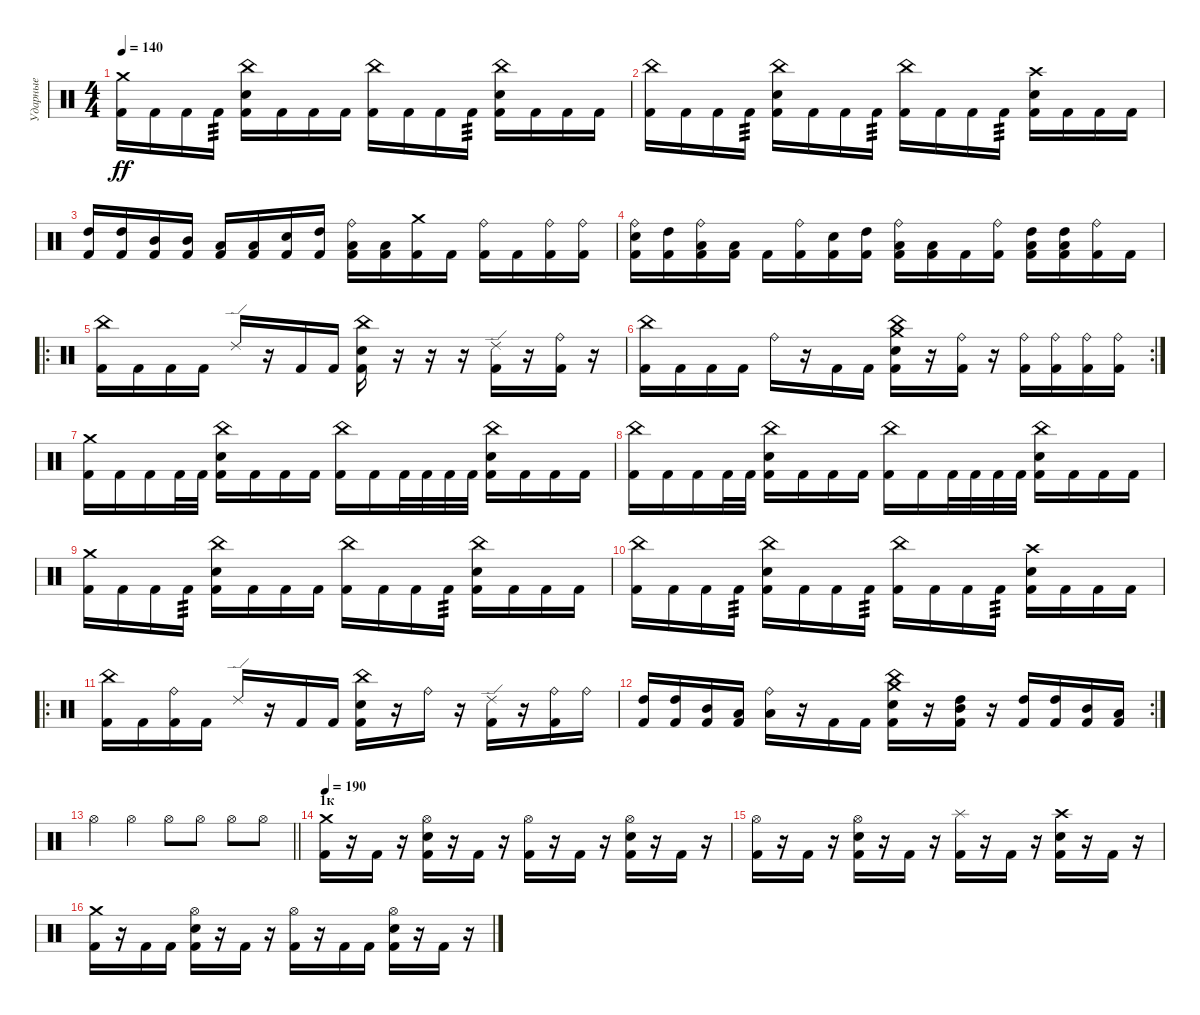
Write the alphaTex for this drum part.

\track ("Ударные" "Ударные") {instrument percussion}
\staff {score}
\articulation defaults
\ts (4 4)
\tempo 140
\clef neutral
\ks c
("Kick (hit) 2" "Crash medium (hit)").16{dy ff} "Kick (hit) 2".16 "Kick (hit) 2".16 "Kick (hit) 2".16{tp 3} ("Snare (hit) 2" "Kick (hit) 2" "China (hit)").16 "Kick (hit) 2".16 "Kick (hit) 2".16 "Kick (hit) 2".16 ("Kick (hit) 2" "China (hit)").16 "Kick (hit) 2".16 "Kick (hit) 2".16 "Kick (hit) 2".16{tp 3} ("Kick (hit) 2" "Snare (hit) 2" "China (hit)").16 "Kick (hit) 2".16 "Kick (hit) 2".16 "Kick (hit) 2".16 |
("Kick (hit) 2" "China (hit)").16 "Kick (hit) 2".16 "Kick (hit) 2".16 "Kick (hit) 2".16{tp 3} ("Snare (hit) 2" "Kick (hit) 2" "China (hit)").16 "Kick (hit) 2".16 "Kick (hit) 2".16 "Kick (hit) 2".16{tp 3} ("Kick (hit) 2" "China (hit)").16 "Kick (hit) 2".16 "Kick (hit) 2".16 "Kick (hit) 2".16{tp 3} ("Kick (hit) 2" "Snare (hit) 2" "Crash high (hit)").16 "Kick (hit) 2".16 "Kick (hit) 2".16 "Kick (hit) 2".16 |
("Kick (hit) 2" "High Tom (hit)").16 ("Kick (hit) 2" "High Tom (hit)").16 ("Kick (hit) 2" "Mid Tom (hit)").16 ("Kick (hit) 2" "Mid Tom (hit)").16 ("Kick (hit) 2" "Low Tom (hit)").16 ("Kick (hit) 2" "Low Tom (hit)").16 ("Kick (hit) 2" "Snare (hit) 2").16 ("Kick (hit) 2" "High Tom (hit)").16 ("Kick (hit) 2" "Low Tom (hit)" "Ride (bell)").16 ("Kick (hit) 2" "Low Tom (hit)").16 ("Kick (hit) 2" "Crash medium (hit)").16 "Kick (hit) 2".16 ("Kick (hit) 2" "Ride (bell)").16 "Kick (hit) 2".16 ("Kick (hit) 2" "Ride (bell)").16 ("Kick (hit) 2" "Ride (bell)").16 |
("Kick (hit) 2" "Snare (hit) 2" "Ride (bell)").16 ("Kick (hit) 2" "High Tom (hit)").16 ("Kick (hit) 2" "Low Tom (hit)" "Ride (bell)").16 ("Kick (hit) 2" "Low Tom (hit)").16 "Kick (hit) 2".16 ("Kick (hit) 2" "Ride (bell)").16 ("Kick (hit) 2" "Snare (hit) 2").16 ("Kick (hit) 2" "High Tom (hit)").16 ("Kick (hit) 2" "Low Tom (hit)" "Ride (bell)").16 ("Kick (hit) 2" "Low Tom (hit)").16 "Kick (hit) 2".16 ("Kick (hit) 2" "Ride (bell)").16 ("Kick (hit) 2" "Low Tom (hit)" "High Tom (hit)").16 ("Kick (hit) 2" "Low Tom (hit)" "High Tom (hit)").16 ("Kick (hit) 2" "Ride (bell)").16 "Kick (hit) 2".16 |
\ro
("Kick (hit) 2" "China (hit)").16 "Kick (hit) 2".16 "Kick (hit) 2".16 "Kick (hit) 2".16 "Ride (edge) 2".16 r.16 "Kick (hit) 2".16 "Kick (hit) 2".16 ("Kick (hit) 2" "Snare (hit) 2" "China (hit)").16 r.16 r.16 r.16 ("Kick (hit) 2" "Ride (edge) 2").16 r.16 ("Kick (hit) 2" "Ride (bell)").16 r.16 |
\rc 2
("Kick (hit) 2" "China (hit)").16 "Kick (hit) 2".16 "Kick (hit) 2".16 "Kick (hit) 2".16 "Ride (bell)".16 r.16 "Kick (hit) 2".16 "Kick (hit) 2".16 ("Kick (hit) 2" "Snare (hit) 2" "China (hit)" "Crash medium (hit)").16 r.16 ("Kick (hit) 2" "Ride (bell)").16 r.16 ("Kick (hit) 2" "Ride (bell)").16 ("Kick (hit) 2" "Ride (bell)").16 ("Kick (hit) 2" "Ride (bell)").16 ("Kick (hit) 2" "Ride (bell)").16 |
("Kick (hit) 2" "Crash medium (hit)").16 "Kick (hit) 2".16 "Kick (hit) 2".16 "Kick (hit) 2".32 "Kick (hit) 2".32 ("Snare (hit) 2" "Kick (hit) 2" "China (hit)").16 "Kick (hit) 2".16 "Kick (hit) 2".16 "Kick (hit) 2".16 ("Kick (hit) 2" "China (hit)").16 "Kick (hit) 2".16 "Kick (hit) 2".32 "Kick (hit) 2".32 "Kick (hit) 2".32 "Kick (hit) 2".32 ("Kick (hit) 2" "Snare (hit) 2" "China (hit)").16 "Kick (hit) 2".16 "Kick (hit) 2".16 "Kick (hit) 2".16 |
("Kick (hit) 2" "China (hit)").16 "Kick (hit) 2".16 "Kick (hit) 2".16 "Kick (hit) 2".32 "Kick (hit) 2".32 ("Snare (hit) 2" "Kick (hit) 2" "China (hit)").16 "Kick (hit) 2".16 "Kick (hit) 2".16 "Kick (hit) 2".16 ("Kick (hit) 2" "China (hit)").16 "Kick (hit) 2".16 "Kick (hit) 2".32 "Kick (hit) 2".32 "Kick (hit) 2".32 "Kick (hit) 2".32 ("Kick (hit) 2" "Snare (hit) 2" "China (hit)").16 "Kick (hit) 2".16 "Kick (hit) 2".16 "Kick (hit) 2".16 |
("Kick (hit) 2" "Crash medium (hit)").16 "Kick (hit) 2".16 "Kick (hit) 2".16 "Kick (hit) 2".16{tp 3} ("Snare (hit) 2" "Kick (hit) 2" "China (hit)").16 "Kick (hit) 2".16 "Kick (hit) 2".16 "Kick (hit) 2".16 ("Kick (hit) 2" "China (hit)").16 "Kick (hit) 2".16 "Kick (hit) 2".16 "Kick (hit) 2".16{tp 3} ("Kick (hit) 2" "Snare (hit) 2" "China (hit)").16 "Kick (hit) 2".16 "Kick (hit) 2".16 "Kick (hit) 2".16 |
("Kick (hit) 2" "China (hit)").16 "Kick (hit) 2".16 "Kick (hit) 2".16 "Kick (hit) 2".16{tp 3} ("Snare (hit) 2" "Kick (hit) 2" "China (hit)").16 "Kick (hit) 2".16 "Kick (hit) 2".16 "Kick (hit) 2".16{tp 3} ("Kick (hit) 2" "China (hit)").16 "Kick (hit) 2".16 "Kick (hit) 2".16 "Kick (hit) 2".16{tp 3} ("Kick (hit) 2" "Snare (hit) 2" "Crash high (hit)").16 "Kick (hit) 2".16 "Kick (hit) 2".16 "Kick (hit) 2".16 |
\ro
("Kick (hit) 2" "China (hit)").16 "Kick (hit) 2".16 ("Kick (hit) 2" "Ride (bell)").16 "Kick (hit) 2".16 "Ride (edge) 2".16 r.16 "Kick (hit) 2".16 "Kick (hit) 2".16 ("Kick (hit) 2" "Snare (hit) 2" "China (hit)").16 r.16 "Ride (bell)".16 r.16 ("Kick (hit) 2" "Ride (edge) 2").16 r.16 ("Kick (hit) 2" "Ride (bell)").16 "Ride (bell)".16 |
\rc 2
("Kick (hit) 2" "High Tom (hit)").16 ("Kick (hit) 2" "High Tom (hit)").16 ("Kick (hit) 2" "Mid Tom (hit)").16 ("Kick (hit) 2" "Low Tom (hit)").16 ("Ride (bell)" "Low Tom (hit)").16 r.16 "Kick (hit) 2".16 "Kick (hit) 2".16 ("Kick (hit) 2" "Snare (hit) 2" "China (hit)" "Crash medium (hit)").16 r.16 ("Kick (hit) 2" "High Tom (hit)" "Mid Tom (hit)").16 r.16 ("Kick (hit) 2" "High Tom (hit)").16 ("Kick (hit) 2" "High Tom (hit)").16 ("Kick (hit) 2" "Mid Tom (hit)").16 ("Kick (hit) 2" "Low Tom (hit)").16 |
\barLineRight lightlight "Hi-Hat (open)".4 "Hi-Hat (open)".4 "Hi-Hat (open)".8 "Hi-Hat (open)".8 "Hi-Hat (open)".8 "Hi-Hat (open)".8
|
\section ("" "1к")
\tempo 190
("Kick (hit) 2" "Crash medium (hit)").16 r.16 "Kick (hit) 2".16 r.16 ("Kick (hit) 2" "Snare (hit) 2" "Hi-Hat (open)").16 r.16 "Kick (hit) 2".16 r.16 ("Kick (hit) 2" "Hi-Hat (open)").16 r.16 "Kick (hit) 2".16 r.16 ("Kick (hit) 2" "Snare (hit) 2" "Hi-Hat (open)").16 r.16 "Kick (hit) 2".16 r.16 |
("Kick (hit) 2" "Hi-Hat (open)").16 r.16 "Kick (hit) 2".16 r.16 ("Kick (hit) 2" "Snare (hit) 2" "Hi-Hat (open)").16 r.16 "Kick (hit) 2".16 r.16 ("Kick (hit) 2" "Splash (hit)").16 r.16 "Kick (hit) 2".16 r.16 ("Kick (hit) 2" "Snare (hit) 2" "Crash high (hit)").16 r.16 "Kick (hit) 2".16 r.16 |
("Kick (hit) 2" "Crash medium (hit)").16 r.16 "Kick (hit) 2".16 "Kick (hit) 2".16 ("Kick (hit) 2" "Snare (hit) 2" "Hi-Hat (open)").16 r.16 "Kick (hit) 2".16 r.16 ("Kick (hit) 2" "Hi-Hat (open)").16 r.16 "Kick (hit) 2".16 "Kick (hit) 2".16 ("Kick (hit) 2" "Snare (hit) 2" "Hi-Hat (open)").16 r.16 "Kick (hit) 2".16 r.16
